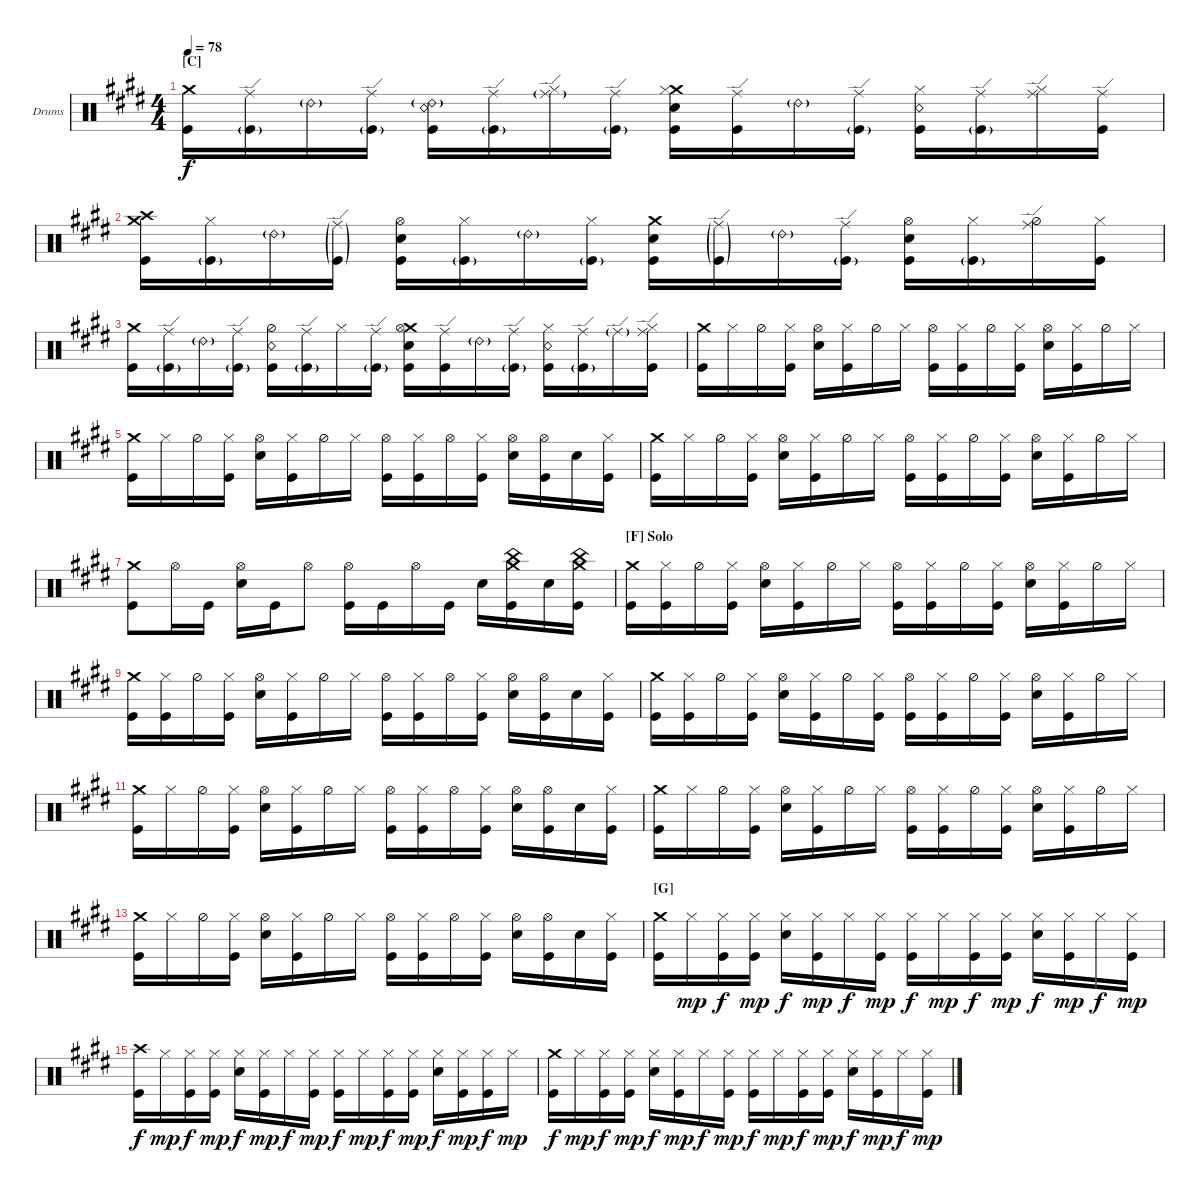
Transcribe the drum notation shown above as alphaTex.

\bracketExtendMode nobrackets
\firstSystemTrackNameOrientation horizontal
\otherSystemsTrackNameOrientation horizontal
\defaultBarNumberDisplay FirstOfSystem
\track ("Drumkit" "Drums") {instrument percussion}
\staff {score}
\articulation defaults
\ts (4 4)
\section ("C" "")
\tempo 78
\clef neutral
\ks c#minor
("Crash medium (hit)" "Kick (hit)").16{dy f} ("Ride (edge)" "Kick (hit)"{g}).16 "Ride (bell) 2"{g}.16 ("Ride (edge)" "Kick (hit)"{g}).16 ("Ride (bell) 2"{g} "Snare (rim shot)" "Kick (hit)").16 ("Ride (edge)" "Kick (hit)"{g}).16 ("Ride (edge)"{g} "Hi-Hat (closed)").16 ("Ride (edge)" "Kick (hit)"{g}).16 ("Snare (hit) 2" "Kick (hit)" "Crash medium (hit)" "Hi-Hat (closed)").16 ("Ride (edge)" "Kick (hit)").16 "Ride (bell) 2"{g}.16 ("Ride (edge)" "Kick (hit)"{g}).16 ("Snare (rim shot)" "Kick (hit)" "Hi-Hat (closed)").16 ("Ride (edge)" "Kick (hit)"{g}).16 ("Hi-Hat (closed)" "Ride (edge)").16 ("Ride (edge)" "Kick (hit)").16 |
("Crash medium (hit)" "Crash high (hit)" "Kick (hit)").16 ("Kick (hit)"{g} "Hi-Hat (closed)").16 "Ride (bell) 2"{g}.16 ("Kick (hit)"{g} "Ride (edge)"{g}).16 ("Snare (hit) 2" "Hi-Hat (open)" "Kick (hit)").16 ("Kick (hit)"{g} "Hi-Hat (closed)").16 "Ride (bell) 2"{g}.16 ("Kick (hit)"{g} "Hi-Hat (closed)").16 ("Crash medium (hit)" "Snare (hit) 2" "Kick (hit)").16 ("Kick (hit)"{g} "Ride (edge)"{g}).16 "Ride (bell) 2"{g}.16 ("Kick (hit)"{g} "Ride (edge)").16 ("Hi-Hat (open)" "Snare (hit) 2" "Kick (hit)").16 ("Kick (hit)"{g} "Hi-Hat (closed)").16 ("Hi-Hat (half)" "Ride (edge)").16 ("Kick (hit)" "Hi-Hat (closed)").16 |
("Crash medium (hit)" "Kick (hit)").16 ("Ride (edge)" "Kick (hit)"{g}).16 "Ride (bell) 2"{g}.16 ("Ride (edge)" "Kick (hit)"{g}).16 ("Snare (rim shot)" "Kick (hit)" "Hi-Hat (half)").16 ("Ride (edge)" "Kick (hit)"{g}).16 "Hi-Hat (closed)".16 ("Ride (edge)" "Kick (hit)"{g}).16 ("Snare (hit) 2" "Kick (hit)" "Crash medium (hit)" "Hi-Hat (open)").16 ("Ride (edge)" "Kick (hit)").16 "Ride (bell) 2"{g}.16 ("Ride (edge)" "Kick (hit)"{g}).16 ("Snare (rim shot)" "Kick (hit)" "Hi-Hat (closed)").16 ("Ride (edge)" "Kick (hit)"{g}).16 "Ride (edge)"{g}.16 ("Ride (edge)" "Kick (hit)" "Hi-Hat (closed)").16 |
("Crash medium (hit)" "Kick (hit)").16 "Hi-Hat (closed)".16 "Hi-Hat (half)".16 ("Kick (hit)" "Hi-Hat (closed)").16 ("Hi-Hat (open)" "Snare (hit) 2").16 ("Kick (hit)" "Hi-Hat (closed)").16 "Hi-Hat (half)".16 "Hi-Hat (closed)".16 ("Hi-Hat (open)" "Kick (hit)").16 ("Kick (hit)" "Hi-Hat (closed)").16 "Hi-Hat (half)".16 ("Kick (hit)" "Hi-Hat (closed)").16 ("Hi-Hat (open)" "Snare (hit) 2").16 ("Kick (hit)" "Hi-Hat (closed)").16 "Hi-Hat (half)".16 "Hi-Hat (closed)".16 |
("Crash medium (hit)" "Kick (hit)").16 "Hi-Hat (closed)".16 "Hi-Hat (half)".16 ("Kick (hit)" "Hi-Hat (closed)").16 ("Hi-Hat (open)" "Snare (hit) 2").16 ("Kick (hit)" "Hi-Hat (closed)").16 "Hi-Hat (half)".16 "Hi-Hat (closed)".16 ("Hi-Hat (open)" "Kick (hit)").16 ("Kick (hit)" "Hi-Hat (closed)").16 "Hi-Hat (open)".16 ("Kick (hit)" "Hi-Hat (closed)").16 ("Hi-Hat (open)" "Snare (hit) 2").16 ("Hi-Hat (open)" "Kick (hit)").16 "Snare (hit) 2".16 ("Kick (hit)" "Hi-Hat (closed)").16 |
("Crash medium (hit)" "Kick (hit)").16 "Hi-Hat (closed)".16 "Hi-Hat (half)".16 ("Kick (hit)" "Hi-Hat (closed)").16 ("Hi-Hat (open)" "Snare (hit) 2").16 ("Kick (hit)" "Hi-Hat (closed)").16 "Hi-Hat (half)".16 "Hi-Hat (closed)".16 ("Hi-Hat (open)" "Kick (hit)").16 ("Kick (hit)" "Hi-Hat (closed)").16 "Hi-Hat (half)".16 ("Kick (hit)" "Hi-Hat (closed)").16 ("Hi-Hat (open)" "Snare (hit) 2").16 ("Kick (hit)" "Hi-Hat (closed)").16 "Hi-Hat (half)".16 "Hi-Hat (closed)".16 |
("Crash medium (hit)" "Kick (hit)").8 "Hi-Hat (open)".16 "Kick (hit)".16 ("Hi-Hat (open)" "Snare (hit) 2").16 "Kick (hit)".16 "Hi-Hat (open)".8 ("Hi-Hat (open)" "Kick (hit)").16 "Kick (hit)".16 "Hi-Hat (open)".16 "Kick (hit)".16 "Snare (hit) 2".16 ("China (hit)" "Crash medium (hit)" "Kick (hit)").16 "Snare (hit) 2".16 ("China (hit)" "Crash medium (hit)" "Kick (hit)").16 |
\section ("F" "Solo")
("Crash medium (hit)" "Kick (hit)").16 ("Hi-Hat (closed)" "Kick (hit)").16 "Hi-Hat (half)".16 ("Kick (hit)" "Hi-Hat (closed)").16 ("Hi-Hat (open)" "Snare (hit) 2").16 ("Kick (hit)" "Hi-Hat (closed)").16 "Hi-Hat (half)".16 "Hi-Hat (closed)".16 ("Hi-Hat (open)" "Kick (hit)").16 ("Kick (hit)" "Hi-Hat (closed)").16 "Hi-Hat (half)".16 ("Kick (hit)" "Hi-Hat (closed)").16 ("Hi-Hat (open)" "Snare (hit) 2").16 ("Kick (hit)" "Hi-Hat (closed)").16 "Hi-Hat (half)".16 "Hi-Hat (closed)".16 |
("Crash medium (hit)" "Kick (hit)").16 ("Hi-Hat (closed)" "Kick (hit)").16 "Hi-Hat (half)".16 ("Kick (hit)" "Hi-Hat (closed)").16 ("Hi-Hat (open)" "Snare (hit) 2").16 ("Kick (hit)" "Hi-Hat (closed)").16 "Hi-Hat (half)".16 "Hi-Hat (closed)".16 ("Hi-Hat (open)" "Kick (hit)").16 ("Kick (hit)" "Hi-Hat (closed)").16 "Hi-Hat (open)".16 ("Kick (hit)" "Hi-Hat (closed)").16 ("Hi-Hat (open)" "Snare (hit) 2").16 ("Hi-Hat (open)" "Kick (hit)").16 "Snare (hit) 2".16 ("Kick (hit)" "Hi-Hat (closed)").16 |
("Crash medium (hit)" "Kick (hit)").16 ("Hi-Hat (closed)" "Kick (hit)").16 "Hi-Hat (half)".16 ("Kick (hit)" "Hi-Hat (closed)").16 ("Hi-Hat (open)" "Snare (hit) 2").16 ("Kick (hit)" "Hi-Hat (closed)").16 "Hi-Hat (half)".16 ("Hi-Hat (closed)" "Kick (hit)").16 ("Hi-Hat (open)" "Kick (hit)").16 ("Kick (hit)" "Hi-Hat (closed)").16 "Hi-Hat (half)".16 ("Kick (hit)" "Hi-Hat (closed)").16 ("Hi-Hat (open)" "Snare (hit) 2").16 ("Kick (hit)" "Hi-Hat (closed)").16 "Hi-Hat (half)".16 "Hi-Hat (closed)".16 |
("Crash medium (hit)" "Kick (hit)").16 "Hi-Hat (closed)".16 "Hi-Hat (half)".16 ("Kick (hit)" "Hi-Hat (closed)").16 ("Hi-Hat (open)" "Snare (hit) 2").16 ("Kick (hit)" "Hi-Hat (closed)").16 "Hi-Hat (half)".16 "Hi-Hat (closed)".16 ("Hi-Hat (open)" "Kick (hit)").16 ("Kick (hit)" "Hi-Hat (closed)").16 "Hi-Hat (open)".16 ("Kick (hit)" "Hi-Hat (closed)").16 ("Hi-Hat (open)" "Snare (hit) 2").16 ("Hi-Hat (open)" "Kick (hit)").16 "Snare (hit) 2".16 ("Kick (hit)" "Hi-Hat (closed)").16 |
("Crash medium (hit)" "Kick (hit)").16 "Hi-Hat (closed)".16 "Hi-Hat (half)".16 ("Kick (hit)" "Hi-Hat (closed)").16 ("Hi-Hat (open)" "Snare (hit) 2").16 ("Kick (hit)" "Hi-Hat (closed)").16 "Hi-Hat (half)".16 "Hi-Hat (closed)".16 ("Hi-Hat (open)" "Kick (hit)").16 ("Kick (hit)" "Hi-Hat (closed)").16 "Hi-Hat (half)".16 ("Kick (hit)" "Hi-Hat (closed)").16 ("Hi-Hat (open)" "Snare (hit) 2").16 ("Kick (hit)" "Hi-Hat (closed)").16 "Hi-Hat (half)".16 "Hi-Hat (closed)".16 |
("Crash medium (hit)" "Kick (hit)").16 "Hi-Hat (closed)".16 "Hi-Hat (half)".16 ("Kick (hit)" "Hi-Hat (closed)").16 ("Hi-Hat (open)" "Snare (hit) 2").16 ("Kick (hit)" "Hi-Hat (closed)").16 "Hi-Hat (half)".16 "Hi-Hat (closed)".16 ("Hi-Hat (open)" "Kick (hit)").16 ("Kick (hit)" "Hi-Hat (closed)").16 "Hi-Hat (open)".16 ("Kick (hit)" "Hi-Hat (closed)").16 ("Hi-Hat (open)" "Snare (hit) 2").16 ("Hi-Hat (open)" "Kick (hit)").16 "Snare (hit) 2".16 ("Kick (hit)" "Hi-Hat (closed)").16 |
\section ("G" "")
("Crash medium (hit)" "Kick (hit)").16 "Hi-Hat (closed)".16{dy mp} ("Hi-Hat (closed)" "Kick (hit)").16{dy f} ("Hi-Hat (closed)" "Kick (hit)").16{dy mp} ("Hi-Hat (closed)" "Snare (hit) 2").16{dy f} ("Hi-Hat (closed)" "Kick (hit)").16{dy mp} "Hi-Hat (closed)".16{dy f} ("Hi-Hat (closed)" "Kick (hit)").16{dy mp} ("Hi-Hat (closed)" "Kick (hit)").16{dy f} "Hi-Hat (closed)".16{dy mp} ("Hi-Hat (closed)" "Kick (hit)").16{dy f} ("Hi-Hat (closed)" "Kick (hit)").16{dy mp} ("Hi-Hat (closed)" "Snare (hit) 2").16{dy f} ("Hi-Hat (closed)" "Kick (hit)").16{dy mp} "Hi-Hat (closed)".16{dy f} ("Hi-Hat (closed)" "Kick (hit)").16{dy mp} |
("Crash high (hit)" "Kick (hit)").16{dy f} "Hi-Hat (closed)".16{dy mp} ("Hi-Hat (closed)" "Kick (hit)").16{dy f} ("Hi-Hat (closed)" "Kick (hit)").16{dy mp} ("Hi-Hat (closed)" "Snare (hit) 2").16{dy f} ("Hi-Hat (closed)" "Kick (hit)").16{dy mp} "Hi-Hat (closed)".16{dy f} ("Hi-Hat (closed)" "Kick (hit)").16{dy mp} ("Hi-Hat (closed)" "Kick (hit)").16{dy f} "Hi-Hat (closed)".16{dy mp} ("Hi-Hat (closed)" "Kick (hit)").16{dy f} ("Hi-Hat (closed)" "Kick (hit)").16{dy mp} ("Hi-Hat (closed)" "Snare (hit) 2").16{dy f} ("Hi-Hat (closed)" "Kick (hit)").16{dy mp} ("Hi-Hat (closed)" "Kick (hit)").16{dy f} "Hi-Hat (closed)".16{dy mp} |
("Crash medium (hit)" "Kick (hit)").16{dy f} "Hi-Hat (closed)".16{dy mp} ("Hi-Hat (closed)" "Kick (hit)").16{dy f} ("Hi-Hat (closed)" "Kick (hit)").16{dy mp} ("Hi-Hat (closed)" "Snare (hit) 2").16{dy f} ("Hi-Hat (closed)" "Kick (hit)").16{dy mp} "Hi-Hat (closed)".16{dy f} ("Hi-Hat (closed)" "Kick (hit)").16{dy mp} ("Hi-Hat (closed)" "Kick (hit)").16{dy f} "Hi-Hat (closed)".16{dy mp} ("Hi-Hat (closed)" "Kick (hit)").16{dy f} ("Hi-Hat (closed)" "Kick (hit)").16{dy mp} ("Hi-Hat (closed)" "Snare (hit) 2").16{dy f} ("Hi-Hat (closed)" "Kick (hit)").16{dy mp} "Hi-Hat (closed)".16{dy f} ("Hi-Hat (closed)" "Kick (hit)").16{dy mp}
